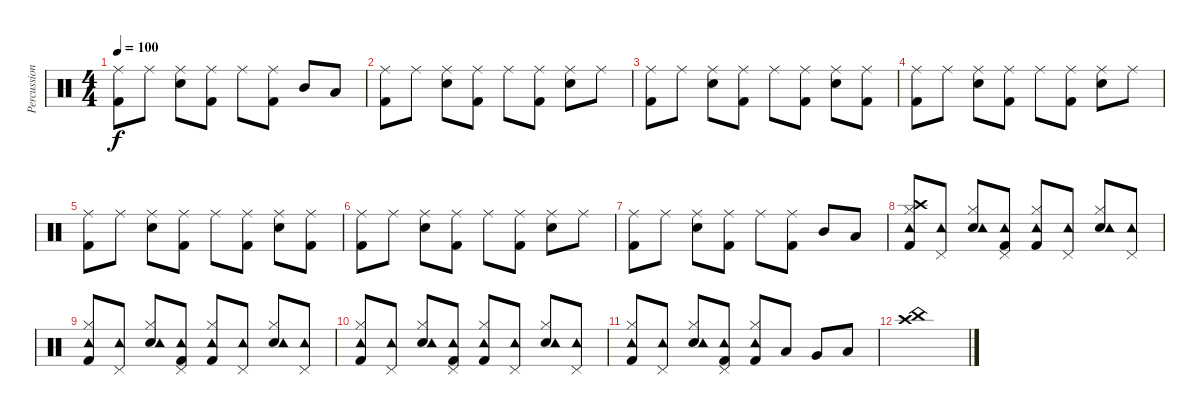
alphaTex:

\track ("Percussion" "Percussion") {instrument percussion}
\staff {score}
\articulation defaults
\ts (4 4)
\tempo 100
\clef neutral
\ks c
("Ride (middle)" "Kick (hit) 2").8{dy f} "Ride (middle)".8 ("Ride (middle)" "Electric Snare (hit)").8 ("Ride (middle)" "Kick (hit) 2").8 "Ride (middle)".8 ("Ride (middle)" "Kick (hit) 2").8 "Mid Tom (hit)".8 "Low Tom (hit)".8 |
("Ride (middle)" "Kick (hit) 2").8 "Ride (middle)".8 ("Ride (middle)" "Electric Snare (hit)").8 ("Ride (middle)" "Kick (hit) 2").8 "Ride (middle)".8 ("Ride (middle)" "Kick (hit) 2").8 ("Ride (middle)" "Electric Snare (hit)").8 "Ride (middle)".8 |
("Ride (middle)" "Kick (hit) 2").8 "Ride (middle)".8 ("Ride (middle)" "Electric Snare (hit)").8 ("Ride (middle)" "Kick (hit) 2").8 "Ride (middle)".8 ("Ride (middle)" "Kick (hit) 2").8 ("Ride (middle)" "Electric Snare (hit)").8 ("Ride (middle)" "Kick (hit) 2").8 |
("Ride (middle)" "Kick (hit) 2").8 "Ride (middle)".8 ("Ride (middle)" "Electric Snare (hit)").8 ("Ride (middle)" "Kick (hit) 2").8 "Ride (middle)".8 ("Ride (middle)" "Kick (hit) 2").8 ("Ride (middle)" "Electric Snare (hit)").8 "Ride (middle)".8 |
("Ride (middle)" "Kick (hit) 2").8 "Ride (middle)".8 ("Ride (middle)" "Electric Snare (hit)").8 ("Ride (middle)" "Kick (hit) 2").8 "Ride (middle)".8 ("Ride (middle)" "Kick (hit) 2").8 ("Ride (middle)" "Electric Snare (hit)").8 ("Ride (middle)" "Kick (hit) 2").8 |
("Ride (middle)" "Kick (hit) 2").8 "Ride (middle)".8 ("Ride (middle)" "Electric Snare (hit)").8 ("Ride (middle)" "Kick (hit) 2").8 "Ride (middle)".8 ("Ride (middle)" "Kick (hit) 2").8 ("Ride (middle)" "Electric Snare (hit)").8 "Ride (middle)".8 |
("Ride (middle)" "Kick (hit) 2").8 "Ride (middle)".8 ("Ride (middle)" "Electric Snare (hit)").8 ("Ride (middle)" "Kick (hit) 2").8 "Ride (middle)".8 ("Ride (middle)" "Kick (hit) 2").8 "Mid Tom (hit)".8 "Low Tom (hit)".8 |
("Crash high (hit)" "Kick (hit) 2" "Hi-Hat (closed)" "Tambourine (hit)").8 ("Pedal Hi-Hat (hit)" "Tambourine (hit)").8 ("Electric Snare (hit)" "Hi-Hat (closed)" "Tambourine (hit)").8 ("Kick (hit) 2" "Pedal Hi-Hat (hit)" "Tambourine (hit)").8 ("Kick (hit) 2" "Hi-Hat (closed)" "Tambourine (hit)").8 ("Pedal Hi-Hat (hit)" "Tambourine (hit)").8 ("Electric Snare (hit)" "Hi-Hat (closed)" "Tambourine (hit)").8 ("Pedal Hi-Hat (hit)" "Tambourine (hit)").8 |
("Kick (hit) 2" "Hi-Hat (closed)" "Tambourine (hit)").8 ("Pedal Hi-Hat (hit)" "Tambourine (hit)").8 ("Electric Snare (hit)" "Hi-Hat (closed)" "Tambourine (hit)").8 ("Kick (hit) 2" "Pedal Hi-Hat (hit)" "Tambourine (hit)").8 ("Kick (hit) 2" "Hi-Hat (closed)" "Tambourine (hit)").8 ("Pedal Hi-Hat (hit)" "Tambourine (hit)").8 ("Electric Snare (hit)" "Hi-Hat (closed)" "Tambourine (hit)").8 ("Pedal Hi-Hat (hit)" "Tambourine (hit)").8 |
("Kick (hit) 2" "Hi-Hat (closed)" "Tambourine (hit)").8 ("Pedal Hi-Hat (hit)" "Tambourine (hit)").8 ("Electric Snare (hit)" "Hi-Hat (closed)" "Tambourine (hit)").8 ("Kick (hit) 2" "Pedal Hi-Hat (hit)" "Tambourine (hit)").8 ("Kick (hit) 2" "Hi-Hat (closed)" "Tambourine (hit)").8 ("Pedal Hi-Hat (hit)" "Tambourine (hit)").8 ("Electric Snare (hit)" "Hi-Hat (closed)" "Tambourine (hit)").8 ("Pedal Hi-Hat (hit)" "Tambourine (hit)").8 |
("Kick (hit) 2" "Hi-Hat (closed)" "Tambourine (hit)").8 ("Pedal Hi-Hat (hit)" "Tambourine (hit)").8 ("Electric Snare (hit)" "Hi-Hat (closed)" "Tambourine (hit)").8 ("Kick (hit) 2" "Pedal Hi-Hat (hit)" "Tambourine (hit)").8 ("Kick (hit) 2" "Hi-Hat (closed)" "Tambourine (hit)").8 "Low Tom (hit)".8 "Very Low Tom (hit)".8 "Low Tom (hit)".8 |
("Crash high (hit)" "China (hit)").1
